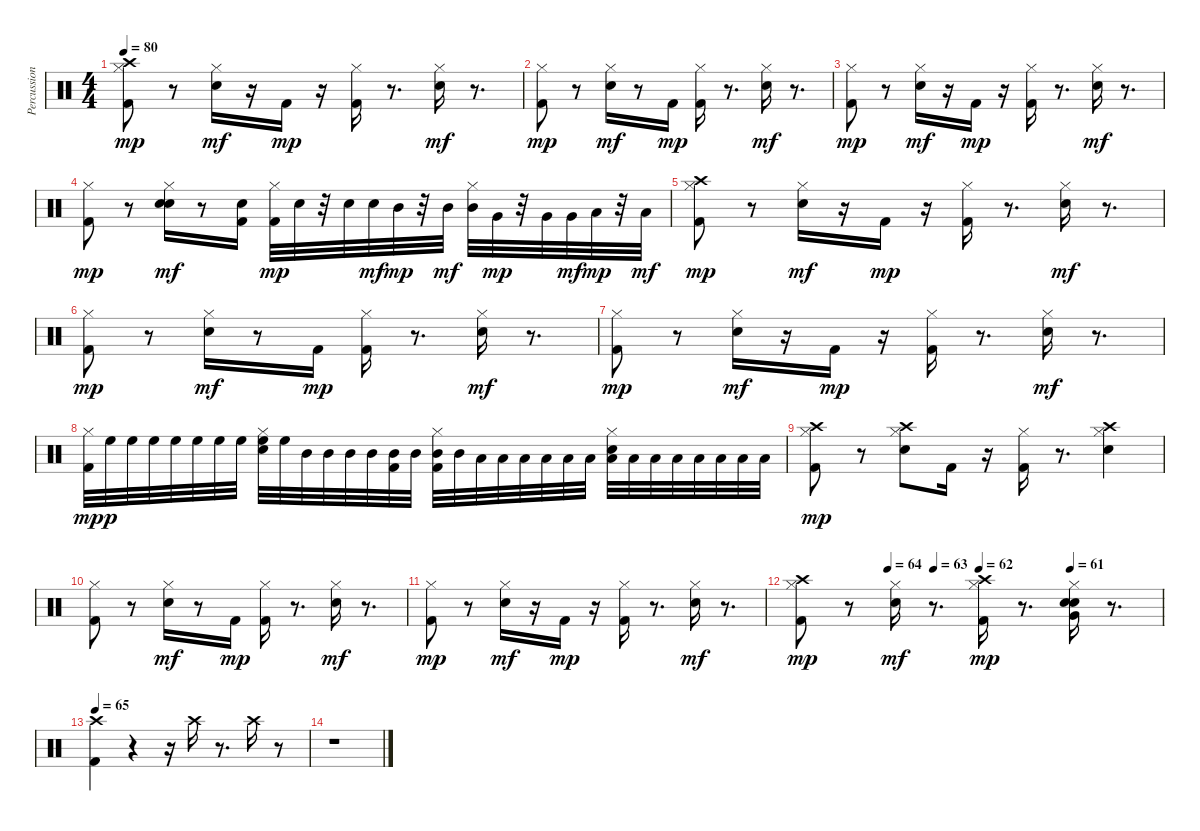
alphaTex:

\track ("Percussions" "Percussion") {instrument percussion}
\staff {score}
\articulation defaults
\ts (4 4)
\tempo 80
\clef neutral
\ks c
("Hi-Hat (closed)" "Kick (hit) 2" "Crash high (hit)").8{dy mp} r.8 ("Hi-Hat (closed)" "Snare (hit) 2").16{dy mf} r.16 "Kick (hit) 2".16{dy mp} r.16 ("Hi-Hat (closed)" "Kick (hit) 2").16 r.8{d} ("Hi-Hat (closed)" "Snare (hit) 2").16{dy mf} r.8{d} |
("Hi-Hat (closed)" "Kick (hit) 2").8{dy mp} r.8 ("Hi-Hat (closed)" "Snare (hit) 2").16{dy mf} r.8 "Kick (hit) 2".16{dy mp} ("Hi-Hat (closed)" "Kick (hit) 2").16 r.8{d} ("Hi-Hat (closed)" "Snare (hit) 2").16{dy mf} r.8{d} |
("Hi-Hat (closed)" "Kick (hit) 2").8{dy mp} r.8 ("Hi-Hat (closed)" "Snare (hit) 2").16{dy mf} r.16 "Kick (hit) 2".16{dy mp} r.16 ("Hi-Hat (closed)" "Kick (hit) 2").16 r.8{d} ("Hi-Hat (closed)" "Snare (hit) 2").16{dy mf} r.8{d} |
("Hi-Hat (closed)" "Kick (hit) 2").8{dy mp} r.8 ("Snare (hit) 2" "Hi-Hat (closed)" "Snare (hit) 2").16{dy mf} r.8 ("Kick (hit) 2" "Snare (hit) 2").16 ("Hi-Hat (closed)" "Kick (hit) 2").32{dy mp} "Snare (hit) 2".32 r.32 "Snare (hit) 2".32 "Snare (hit) 2".32{dy mf} "Mid Tom (hit)".32{dy mp} r.32 "Mid Tom (hit)".32{dy mf} ("Hi-Hat (closed)" "Mid Tom (hit)").32 "Very Low Tom (hit)".32{dy mp} r.32 "Very Low Tom (hit)".32 "Very Low Tom (hit)".32{dy mf} "Low Floor Tom (hit)".32{dy mp} r.32 "Low Floor Tom (hit)".32{dy mf} |
("Hi-Hat (closed)" "Kick (hit) 2" "Crash high (hit)").8{dy mp} r.8 ("Hi-Hat (closed)" "Snare (hit) 2").16{dy mf} r.16 "Kick (hit) 2".16{dy mp} r.16 ("Hi-Hat (closed)" "Kick (hit) 2").16 r.8{d} ("Hi-Hat (closed)" "Snare (hit) 2").16{dy mf} r.8{d} |
("Hi-Hat (closed)" "Kick (hit) 2").8{dy mp} r.8 ("Hi-Hat (closed)" "Snare (hit) 2").16{dy mf} r.8 "Kick (hit) 2".16{dy mp} ("Hi-Hat (closed)" "Kick (hit) 2").16 r.8{d} ("Hi-Hat (closed)" "Snare (hit) 2").16{dy mf} r.8{d} |
("Hi-Hat (closed)" "Kick (hit) 2").8{dy mp} r.8 ("Hi-Hat (closed)" "Snare (hit) 2").16{dy mf} r.16 "Kick (hit) 2".16{dy mp} r.16 ("Hi-Hat (closed)" "Kick (hit) 2").16 r.8{d} ("Hi-Hat (closed)" "Snare (hit) 2").16{dy mf} r.8{d} |
("Hi-Hat (closed)" "Kick (hit) 2").32{dy mp} "High Floor Tom (hit)".32{dy p} "High Floor Tom (hit)".32 "High Floor Tom (hit)".32 "High Floor Tom (hit)".32 "High Floor Tom (hit)".32 "High Floor Tom (hit)".32 "High Floor Tom (hit)".32 ("Hi-Hat (closed)" "Snare (hit) 2" "High Floor Tom (hit)").32 "High Floor Tom (hit)".32 "Mid Tom (hit)".32 "Mid Tom (hit)".32 "Mid Tom (hit)".32 "Mid Tom (hit)".32 ("Kick (hit) 2" "Mid Tom (hit)").32 "Mid Tom (hit)".32 ("Hi-Hat (closed)" "Kick (hit) 2" "Mid Tom (hit)").32 "Mid Tom (hit)".32 "Low Tom (hit)".32 "Low Tom (hit)".32 "Low Tom (hit)".32 "Low Tom (hit)".32 "Low Tom (hit)".32 "Low Tom (hit)".32 ("Hi-Hat (closed)" "Snare (hit) 2" "Low Tom (hit)").32 "Low Tom (hit)".32 "Low Floor Tom (hit)".32 "Low Floor Tom (hit)".32 "Low Floor Tom (hit)".32 "Low Floor Tom (hit)".32 "Low Floor Tom (hit)".32 "Low Floor Tom (hit)".32 |
("Hi-Hat (closed)" "Kick (hit) 2" "Crash high (hit)").8{dy mp} r.8 ("Hi-Hat (closed)" "Snare (hit) 2" "Crash high (hit)").8 "Kick (hit) 2".16 r.16 ("Hi-Hat (closed)" "Kick (hit) 2").16 r.8{d} ("Hi-Hat (closed)" "Snare (hit) 2" "Crash high (hit)").4 |
("Hi-Hat (closed)" "Kick (hit) 2").8 r.8 ("Hi-Hat (closed)" "Snare (hit) 2").16{dy mf} r.8 "Kick (hit) 2".16{dy mp} ("Hi-Hat (closed)" "Kick (hit) 2").16 r.8{d} ("Hi-Hat (closed)" "Snare (hit) 2").16{dy mf} r.8{d} |
("Hi-Hat (closed)" "Kick (hit) 2").8{dy mp} r.8 ("Hi-Hat (closed)" "Snare (hit) 2").16{dy mf} r.16 "Kick (hit) 2".16{dy mp} r.16 ("Hi-Hat (closed)" "Kick (hit) 2").16 r.8{d} ("Hi-Hat (closed)" "Snare (hit) 2").16{dy mf} r.8{d} |
\tempo (64 0.25)
\tempo (63 0.375)
\tempo (62 0.5)
\tempo (61 0.75)
("Hi-Hat (closed)" "Kick (hit) 2" "Crash high (hit)").8{dy mp} r.8 ("Hi-Hat (closed)" "Snare (hit) 2").16{dy mf} r.8{d} ("Hi-Hat (closed)" "Kick (hit) 2" "Crash high (hit)").16{dy mp} r.8{d} ("Snare (hit) 2" "Hi-Hat (closed)" "Snare (hit) 2" "Very Low Tom (hit)").16 r.8{d} |
\tempo 65
("Kick (hit) 2" "Crash high (hit)").4 r.4 r.16 "Crash high (hit)".16 r.8{d} "Crash high (hit)".16 r.8 |
r.1
